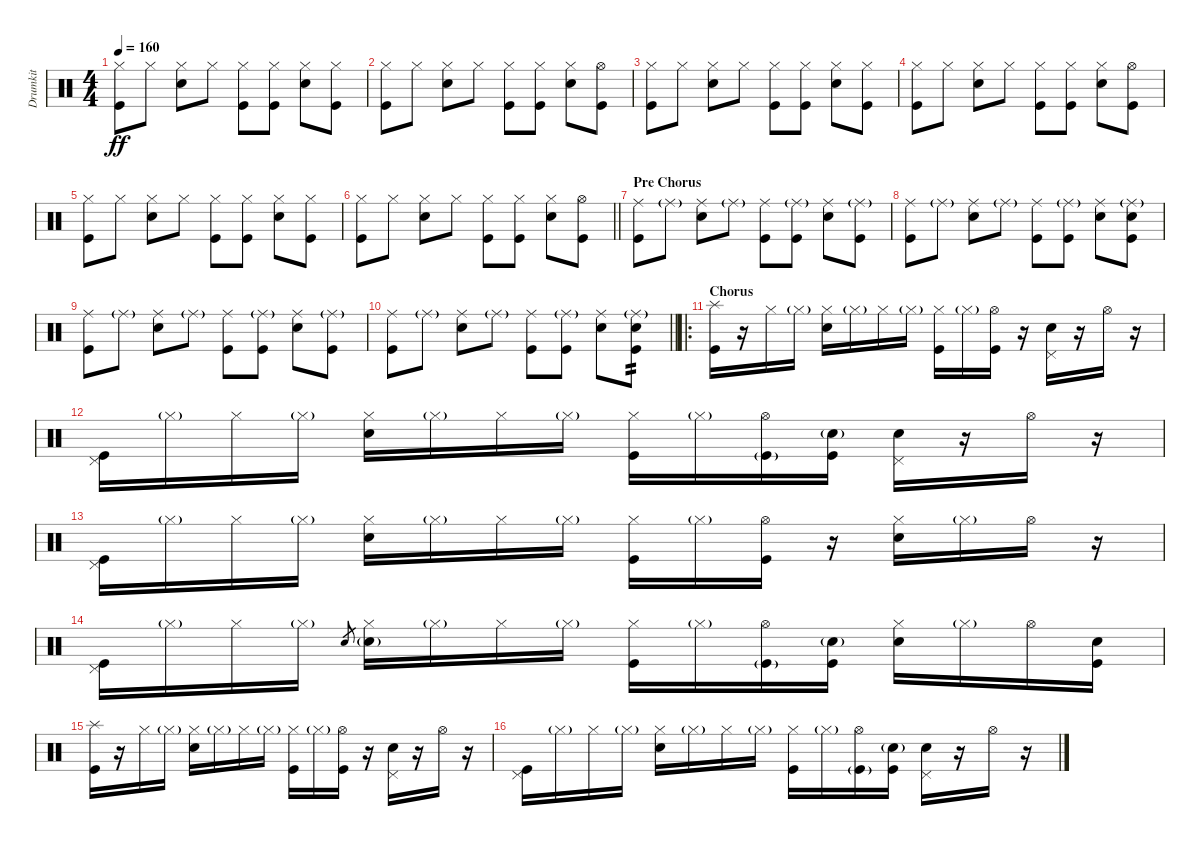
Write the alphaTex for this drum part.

\track ("Drumkit" "Drumkit") {instrument percussion}
\staff {score}
\articulation defaults
\ts (4 4)
\tempo 160
\clef neutral
\ks c
("Hi-Hat (closed)" "Kick (hit)").8{dy ff} "Hi-Hat (closed)".8 ("Hi-Hat (closed)" "Snare (hit) 2").8 "Hi-Hat (closed)".8 ("Hi-Hat (closed)" "Kick (hit)").8 ("Hi-Hat (closed)" "Kick (hit)").8 ("Hi-Hat (closed)" "Snare (hit) 2").8 ("Hi-Hat (closed)" "Kick (hit)").8 |
("Hi-Hat (closed)" "Kick (hit)").8 "Hi-Hat (closed)".8 ("Hi-Hat (closed)" "Snare (hit) 2").8 "Hi-Hat (closed)".8 ("Hi-Hat (closed)" "Kick (hit)").8 ("Hi-Hat (closed)" "Kick (hit)").8 ("Hi-Hat (closed)" "Snare (hit) 2").8 ("Hi-Hat (open)" "Kick (hit)").8 |
("Hi-Hat (closed)" "Kick (hit)").8 "Hi-Hat (closed)".8 ("Hi-Hat (closed)" "Snare (hit) 2").8 "Hi-Hat (closed)".8 ("Hi-Hat (closed)" "Kick (hit)").8 ("Hi-Hat (closed)" "Kick (hit)").8 ("Hi-Hat (closed)" "Snare (hit) 2").8 ("Hi-Hat (closed)" "Kick (hit)").8 |
("Hi-Hat (closed)" "Kick (hit)").8 "Hi-Hat (closed)".8 ("Hi-Hat (closed)" "Snare (hit) 2").8 "Hi-Hat (closed)".8 ("Hi-Hat (closed)" "Kick (hit)").8 ("Hi-Hat (closed)" "Kick (hit)").8 ("Hi-Hat (closed)" "Snare (hit) 2").8 ("Hi-Hat (open)" "Kick (hit)").8 |
("Hi-Hat (closed)" "Kick (hit)").8 "Hi-Hat (closed)".8 ("Hi-Hat (closed)" "Snare (hit) 2").8 "Hi-Hat (closed)".8 ("Hi-Hat (closed)" "Kick (hit)").8 ("Hi-Hat (closed)" "Kick (hit)").8 ("Hi-Hat (closed)" "Snare (hit) 2").8 ("Hi-Hat (closed)" "Kick (hit)").8 |
\barLineRight lightlight
("Hi-Hat (closed)" "Kick (hit)").8 "Hi-Hat (closed)".8 ("Hi-Hat (closed)" "Snare (hit) 2").8 "Hi-Hat (closed)".8 ("Hi-Hat (closed)" "Kick (hit)").8 ("Hi-Hat (closed)" "Kick (hit)").8 ("Hi-Hat (closed)" "Snare (hit) 2").8 ("Hi-Hat (open)" "Kick (hit)").8 |
\section ("" "Pre Chorus")
("Ride (middle)" "Kick (hit)").8 "Ride (middle)"{g}.8 ("Ride (middle)" "Snare (hit) 2").8 "Ride (middle)"{g}.8 ("Ride (middle)" "Kick (hit)").8 ("Ride (middle)"{g} "Kick (hit)").8 ("Ride (middle)" "Snare (hit) 2").8 ("Ride (middle)"{g} "Kick (hit)").8 |
("Ride (middle)" "Kick (hit)").8 "Ride (middle)"{g}.8 ("Ride (middle)" "Snare (hit) 2").8 "Ride (middle)"{g}.8 ("Ride (middle)" "Kick (hit)").8 ("Ride (middle)"{g} "Kick (hit)").8 ("Ride (middle)" "Snare (hit) 2").8 ("Ride (middle)"{g} "Snare (hit) 2" "Kick (hit)").8 |
("Ride (middle)" "Kick (hit)").8 "Ride (middle)"{g}.8 ("Ride (middle)" "Snare (hit) 2").8 "Ride (middle)"{g}.8 ("Ride (middle)" "Kick (hit)").8 ("Ride (middle)"{g} "Kick (hit)").8 ("Ride (middle)" "Snare (hit) 2").8 ("Ride (middle)"{g} "Kick (hit)").8 |
\barLineRight lightlight
("Ride (middle)" "Kick (hit)").8 "Ride (middle)"{g}.8 ("Ride (middle)" "Snare (hit) 2").8 "Ride (middle)"{g}.8 ("Ride (middle)" "Kick (hit)").8 ("Ride (middle)"{g} "Kick (hit)").8 ("Ride (middle)" "Snare (hit) 2").8 ("Ride (middle)"{g} "Snare (hit) 2" "Kick (hit)").8{tp 2} |
\ro
\section ("" "Chorus")
("Splash (hit)" "Kick (hit)").16 r.16 "Hi-Hat (closed)".16 "Hi-Hat (closed)"{g}.16 ("Hi-Hat (closed)" "Snare (hit) 2").16 "Hi-Hat (closed)"{g}.16 "Hi-Hat (closed)".16 "Hi-Hat (closed)"{g}.16 ("Hi-Hat (closed)" "Kick (hit)").16 "Hi-Hat (closed)"{g}.16 ("Hi-Hat (open)" "Kick (hit)").16 r.16 ("Pedal Hi-Hat (hit)" "Snare (hit) 2").16 r.16 "Hi-Hat (open)".16 r.16 |
("Pedal Hi-Hat (hit)" "Kick (hit)").16 "Hi-Hat (closed)"{g}.16 "Hi-Hat (closed)".16 "Hi-Hat (closed)"{g}.16 ("Hi-Hat (closed)" "Snare (hit) 2").16 "Hi-Hat (closed)"{g}.16 "Hi-Hat (closed)".16 "Hi-Hat (closed)"{g}.16 ("Hi-Hat (closed)" "Kick (hit)").16 "Hi-Hat (closed)"{g}.16 ("Hi-Hat (open)" "Kick (hit)"{g}).16 ("Snare (hit) 2"{g} "Kick (hit)").16 ("Pedal Hi-Hat (hit)" "Snare (hit) 2").16 r.16 "Hi-Hat (open)".16 r.16 |
("Pedal Hi-Hat (hit)" "Kick (hit)").16 "Hi-Hat (closed)"{g}.16 "Hi-Hat (closed)".16 "Hi-Hat (closed)"{g}.16 ("Hi-Hat (closed)" "Snare (hit) 2").16 "Hi-Hat (closed)"{g}.16 "Hi-Hat (closed)".16 "Hi-Hat (closed)"{g}.16 ("Hi-Hat (closed)" "Kick (hit)").16 "Hi-Hat (closed)"{g}.16 ("Hi-Hat (open)" "Kick (hit)").16 r.16 ("Hi-Hat (closed)" "Snare (hit) 2").16 "Hi-Hat (closed)"{g}.16 "Hi-Hat (open)".16 r.16 |
("Pedal Hi-Hat (hit)" "Kick (hit)").16 "Hi-Hat (closed)"{g}.16 "Hi-Hat (closed)".16 "Hi-Hat (closed)"{g}.16 "Snare (hit)".8{gr} ("Hi-Hat (closed)" "Snare (hit) 2"{g}).16 "Hi-Hat (closed)"{g}.16 "Hi-Hat (closed)".16 "Hi-Hat (closed)"{g}.16 ("Hi-Hat (closed)" "Kick (hit)").16 "Hi-Hat (closed)"{g}.16 ("Hi-Hat (open)" "Kick (hit)"{g}).16 ("Snare (hit) 2"{g} "Kick (hit)").16 ("Hi-Hat (closed)" "Snare (hit) 2").16 "Hi-Hat (closed)"{g}.16 "Hi-Hat (open)".16 ("Snare (hit) 2" "Kick (hit)").16 |
("Splash (hit)" "Kick (hit)").16 r.16 "Hi-Hat (closed)".16 "Hi-Hat (closed)"{g}.16 ("Hi-Hat (closed)" "Snare (hit) 2").16 "Hi-Hat (closed)"{g}.16 "Hi-Hat (closed)".16 "Hi-Hat (closed)"{g}.16 ("Hi-Hat (closed)" "Kick (hit)").16 "Hi-Hat (closed)"{g}.16 ("Hi-Hat (open)" "Kick (hit)").16 r.16 ("Pedal Hi-Hat (hit)" "Snare (hit) 2").16 r.16 "Hi-Hat (open)".16 r.16 |
("Pedal Hi-Hat (hit)" "Kick (hit)").16 "Hi-Hat (closed)"{g}.16 "Hi-Hat (closed)".16 "Hi-Hat (closed)"{g}.16 ("Hi-Hat (closed)" "Snare (hit) 2").16 "Hi-Hat (closed)"{g}.16 "Hi-Hat (closed)".16 "Hi-Hat (closed)"{g}.16 ("Hi-Hat (closed)" "Kick (hit)").16 "Hi-Hat (closed)"{g}.16 ("Hi-Hat (open)" "Kick (hit)"{g}).16 ("Snare (hit) 2"{g} "Kick (hit)").16 ("Pedal Hi-Hat (hit)" "Snare (hit) 2").16 r.16 "Hi-Hat (open)".16 r.16
